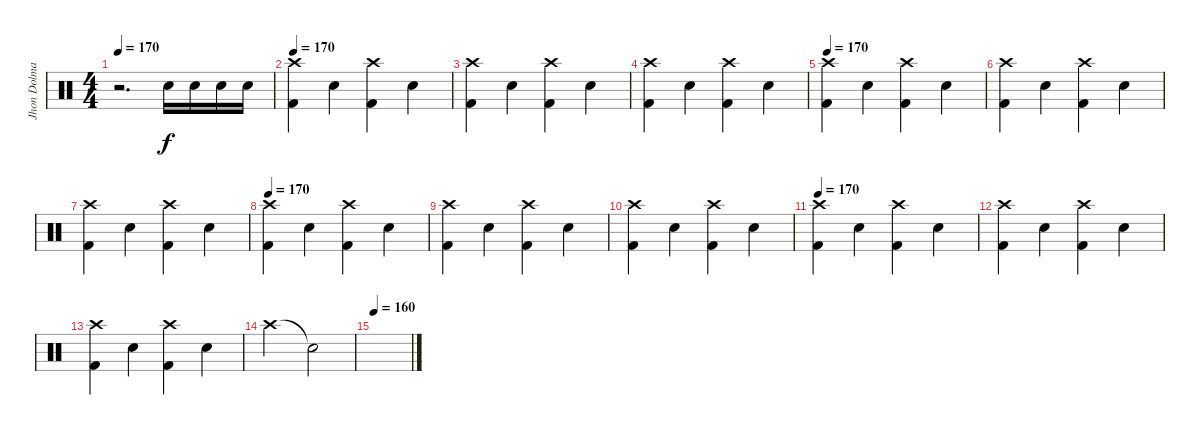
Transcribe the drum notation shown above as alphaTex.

\track ("Jhon Dolmayan(Drum)" "Jhon Dolma") {instrument percussion}
\staff {score}
\articulation defaults
\ts (4 4)
\tempo 170
\clef neutral
\ks c
r.2{d dy f} "Electric Snare (hit)".16 "Electric Snare (hit)".16 "Electric Snare (hit)".16 "Electric Snare (hit)".16 |
\tempo 170
("Crash high (hit)" "Kick (hit) 2").4 "Electric Snare (hit)".4 ("Crash high (hit)" "Kick (hit) 2").4 "Electric Snare (hit)".4 |
("Crash high (hit)" "Kick (hit) 2").4 "Electric Snare (hit)".4 ("Crash high (hit)" "Kick (hit) 2").4 "Electric Snare (hit)".4 |
("Crash high (hit)" "Kick (hit) 2").4 "Electric Snare (hit)".4 ("Crash high (hit)" "Kick (hit) 2").4 "Electric Snare (hit)".4 |
\tempo 170
("Crash high (hit)" "Kick (hit) 2").4 "Electric Snare (hit)".4 ("Crash high (hit)" "Kick (hit) 2").4 "Electric Snare (hit)".4 |
("Crash high (hit)" "Kick (hit) 2").4 "Electric Snare (hit)".4 ("Crash high (hit)" "Kick (hit) 2").4 "Electric Snare (hit)".4 |
("Crash high (hit)" "Kick (hit) 2").4 "Electric Snare (hit)".4 ("Crash high (hit)" "Kick (hit) 2").4 "Electric Snare (hit)".4 |
\tempo 170
("Crash high (hit)" "Kick (hit) 2").4 "Electric Snare (hit)".4 ("Crash high (hit)" "Kick (hit) 2").4 "Electric Snare (hit)".4 |
("Crash high (hit)" "Kick (hit) 2").4 "Electric Snare (hit)".4 ("Crash high (hit)" "Kick (hit) 2").4 "Electric Snare (hit)".4 |
("Crash high (hit)" "Kick (hit) 2").4 "Electric Snare (hit)".4 ("Crash high (hit)" "Kick (hit) 2").4 "Electric Snare (hit)".4 |
\tempo 170
("Crash high (hit)" "Kick (hit) 2").4 "Electric Snare (hit)".4 ("Crash high (hit)" "Kick (hit) 2").4 "Electric Snare (hit)".4 |
("Crash high (hit)" "Kick (hit) 2").4 "Electric Snare (hit)".4 ("Crash high (hit)" "Kick (hit) 2").4 "Electric Snare (hit)".4 |
("Crash high (hit)" "Kick (hit) 2").4 "Electric Snare (hit)".4 ("Crash high (hit)" "Kick (hit) 2").4 "Electric Snare (hit)".4 |
"Crash high (hit)".2 "Snare (hit)"{t}.2 |
\tempo 160
